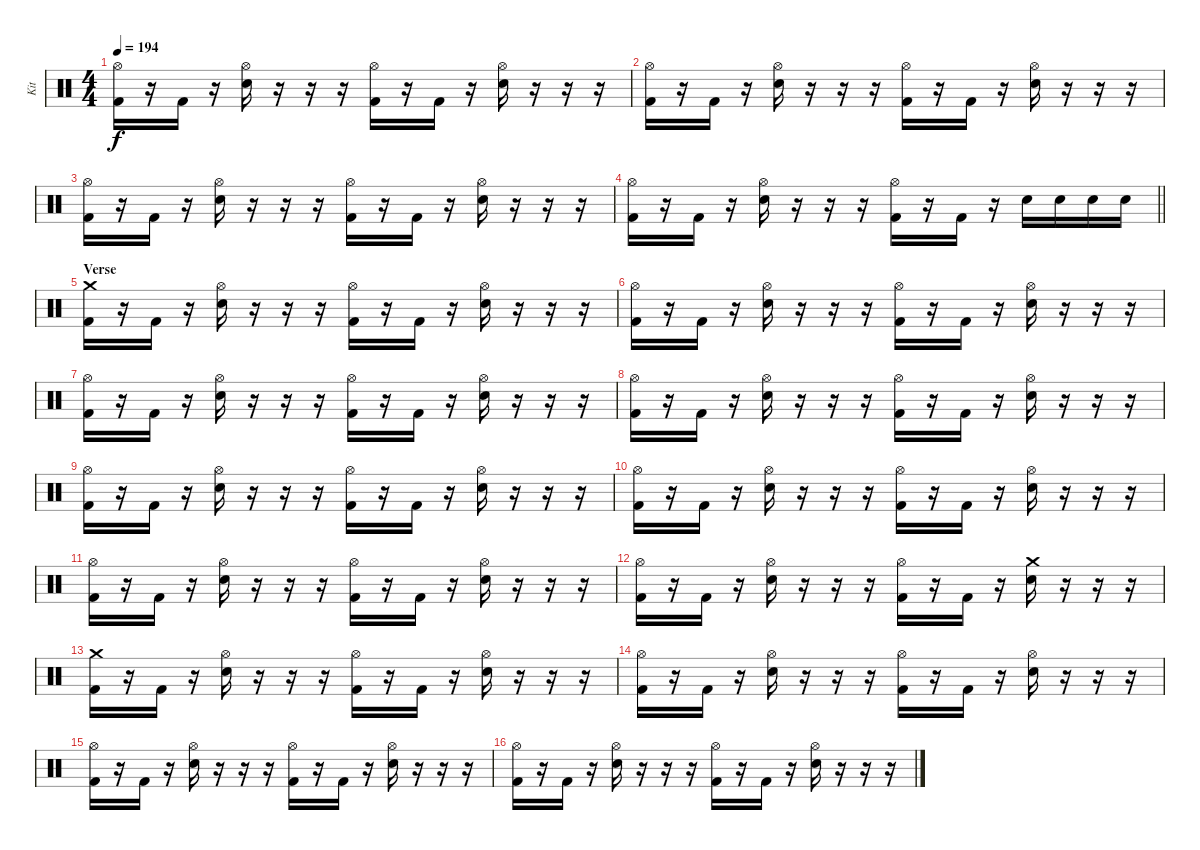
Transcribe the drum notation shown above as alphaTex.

\track ("Kit" "Kit") {instrument percussion}
\staff {score}
\articulation defaults
\ts (4 4)
\tempo 194
\clef neutral
\ks c
("Hi-Hat (open)" "Kick (hit) 2").16{dy f} r.16 "Kick (hit) 2".16 r.16 ("Hi-Hat (open)" "Electric Snare (hit)").16 r.16 r.16 r.16 ("Hi-Hat (open)" "Kick (hit) 2").16 r.16 "Kick (hit) 2".16 r.16 ("Hi-Hat (open)" "Electric Snare (hit)").16 r.16 r.16 r.16 |
("Hi-Hat (open)" "Kick (hit) 2").16 r.16 "Kick (hit) 2".16 r.16 ("Hi-Hat (open)" "Electric Snare (hit)").16 r.16 r.16 r.16 ("Hi-Hat (open)" "Kick (hit) 2").16 r.16 "Kick (hit) 2".16 r.16 ("Hi-Hat (open)" "Electric Snare (hit)").16 r.16 r.16 r.16 |
("Hi-Hat (open)" "Kick (hit) 2").16 r.16 "Kick (hit) 2".16 r.16 ("Hi-Hat (open)" "Electric Snare (hit)").16 r.16 r.16 r.16 ("Hi-Hat (open)" "Kick (hit) 2").16 r.16 "Kick (hit) 2".16 r.16 ("Hi-Hat (open)" "Electric Snare (hit)").16 r.16 r.16 r.16 |
\barLineRight lightlight
("Hi-Hat (open)" "Kick (hit) 2").16 r.16 "Kick (hit) 2".16 r.16 ("Hi-Hat (open)" "Electric Snare (hit)").16 r.16 r.16 r.16 ("Hi-Hat (open)" "Kick (hit) 2").16 r.16 "Kick (hit) 2".16 r.16 "Electric Snare (hit)".16 "Electric Snare (hit)".16 "Electric Snare (hit)".16 "Electric Snare (hit)".16 |
\section ("" "Verse")
("Crash medium (hit)" "Kick (hit) 2").16 r.16 "Kick (hit) 2".16 r.16 ("Hi-Hat (open)" "Electric Snare (hit)").16 r.16 r.16 r.16 ("Hi-Hat (open)" "Kick (hit) 2").16 r.16 "Kick (hit) 2".16 r.16 ("Hi-Hat (open)" "Electric Snare (hit)").16 r.16 r.16 r.16 |
("Hi-Hat (open)" "Kick (hit) 2").16 r.16 "Kick (hit) 2".16 r.16 ("Hi-Hat (open)" "Electric Snare (hit)").16 r.16 r.16 r.16 ("Hi-Hat (open)" "Kick (hit) 2").16 r.16 "Kick (hit) 2".16 r.16 ("Hi-Hat (open)" "Electric Snare (hit)").16 r.16 r.16 r.16 |
("Hi-Hat (open)" "Kick (hit) 2").16 r.16 "Kick (hit) 2".16 r.16 ("Hi-Hat (open)" "Electric Snare (hit)").16 r.16 r.16 r.16 ("Hi-Hat (open)" "Kick (hit) 2").16 r.16 "Kick (hit) 2".16 r.16 ("Hi-Hat (open)" "Electric Snare (hit)").16 r.16 r.16 r.16 |
("Hi-Hat (open)" "Kick (hit) 2").16 r.16 "Kick (hit) 2".16 r.16 ("Hi-Hat (open)" "Electric Snare (hit)").16 r.16 r.16 r.16 ("Hi-Hat (open)" "Kick (hit) 2").16 r.16 "Kick (hit) 2".16 r.16 ("Hi-Hat (open)" "Electric Snare (hit)").16 r.16 r.16 r.16 |
("Hi-Hat (open)" "Kick (hit) 2").16 r.16 "Kick (hit) 2".16 r.16 ("Hi-Hat (open)" "Electric Snare (hit)").16 r.16 r.16 r.16 ("Hi-Hat (open)" "Kick (hit) 2").16 r.16 "Kick (hit) 2".16 r.16 ("Hi-Hat (open)" "Electric Snare (hit)").16 r.16 r.16 r.16 |
("Hi-Hat (open)" "Kick (hit) 2").16 r.16 "Kick (hit) 2".16 r.16 ("Hi-Hat (open)" "Electric Snare (hit)").16 r.16 r.16 r.16 ("Hi-Hat (open)" "Kick (hit) 2").16 r.16 "Kick (hit) 2".16 r.16 ("Hi-Hat (open)" "Electric Snare (hit)").16 r.16 r.16 r.16 |
("Hi-Hat (open)" "Kick (hit) 2").16 r.16 "Kick (hit) 2".16 r.16 ("Hi-Hat (open)" "Electric Snare (hit)").16 r.16 r.16 r.16 ("Hi-Hat (open)" "Kick (hit) 2").16 r.16 "Kick (hit) 2".16 r.16 ("Hi-Hat (open)" "Electric Snare (hit)").16 r.16 r.16 r.16 |
("Hi-Hat (open)" "Kick (hit) 2").16 r.16 "Kick (hit) 2".16 r.16 ("Hi-Hat (open)" "Electric Snare (hit)").16 r.16 r.16 r.16 ("Hi-Hat (open)" "Kick (hit) 2").16 r.16 "Kick (hit) 2".16 r.16 ("Crash medium (hit)" "Electric Snare (hit)").16 r.16 r.16 r.16 |
("Crash medium (hit)" "Kick (hit) 2").16 r.16 "Kick (hit) 2".16 r.16 ("Hi-Hat (open)" "Electric Snare (hit)").16 r.16 r.16 r.16 ("Hi-Hat (open)" "Kick (hit) 2").16 r.16 "Kick (hit) 2".16 r.16 ("Hi-Hat (open)" "Electric Snare (hit)").16 r.16 r.16 r.16 |
("Hi-Hat (open)" "Kick (hit) 2").16 r.16 "Kick (hit) 2".16 r.16 ("Hi-Hat (open)" "Electric Snare (hit)").16 r.16 r.16 r.16 ("Hi-Hat (open)" "Kick (hit) 2").16 r.16 "Kick (hit) 2".16 r.16 ("Hi-Hat (open)" "Electric Snare (hit)").16 r.16 r.16 r.16 |
("Hi-Hat (open)" "Kick (hit) 2").16 r.16 "Kick (hit) 2".16 r.16 ("Hi-Hat (open)" "Electric Snare (hit)").16 r.16 r.16 r.16 ("Hi-Hat (open)" "Kick (hit) 2").16 r.16 "Kick (hit) 2".16 r.16 ("Hi-Hat (open)" "Electric Snare (hit)").16 r.16 r.16 r.16 |
("Hi-Hat (open)" "Kick (hit) 2").16 r.16 "Kick (hit) 2".16 r.16 ("Hi-Hat (open)" "Electric Snare (hit)").16 r.16 r.16 r.16 ("Hi-Hat (open)" "Kick (hit) 2").16 r.16 "Kick (hit) 2".16 r.16 ("Hi-Hat (open)" "Electric Snare (hit)").16 r.16 r.16 r.16
